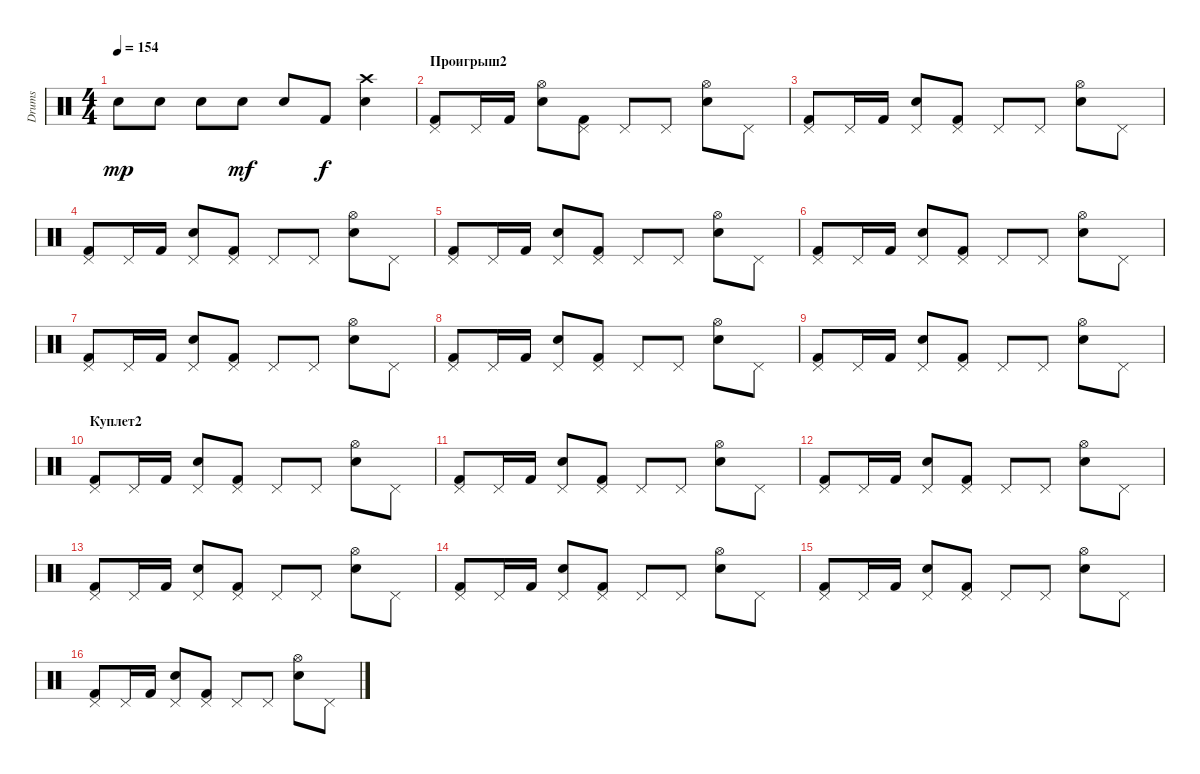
\track ("Drums" "Drums") {instrument percussion}
\staff {score}
\articulation defaults
\ts (4 4)
\tempo 154
\clef neutral
\ks c "Electric Snare (hit)".8{dy mp} "Electric Snare (hit)".8 "Electric Snare (hit)".8 "Electric Snare (hit)".8{dy mf} "Electric Snare (hit)".8 "Kick (hit) 2".8{dy f}
("Crash high (hit)" "Electric Snare (hit)").4 |
\section ("" "Проигрыш2")
("Pedal Hi-Hat (hit)" "Kick (hit) 2").8 "Pedal Hi-Hat (hit)".16 "Kick (hit) 2".16 ("Hi-Hat (open)" "Electric Snare (hit)").8 ("Pedal Hi-Hat (hit)" "Kick (hit) 2").8 "Pedal Hi-Hat (hit)".8 "Pedal Hi-Hat (hit)".8 ("Hi-Hat (open)" "Electric Snare (hit)").8 "Pedal Hi-Hat (hit)".8 |
("Pedal Hi-Hat (hit)" "Kick (hit) 2").8 "Pedal Hi-Hat (hit)".16 "Kick (hit) 2".16 ("Pedal Hi-Hat (hit)" "Electric Snare (hit)").8 ("Pedal Hi-Hat (hit)" "Kick (hit) 2").8 "Pedal Hi-Hat (hit)".8 "Pedal Hi-Hat (hit)".8 ("Hi-Hat (open)" "Electric Snare (hit)").8 "Pedal Hi-Hat (hit)".8 |
("Pedal Hi-Hat (hit)" "Kick (hit) 2").8 "Pedal Hi-Hat (hit)".16 "Kick (hit) 2".16 ("Pedal Hi-Hat (hit)" "Electric Snare (hit)").8 ("Pedal Hi-Hat (hit)" "Kick (hit) 2").8 "Pedal Hi-Hat (hit)".8 "Pedal Hi-Hat (hit)".8 ("Hi-Hat (open)" "Electric Snare (hit)").8 "Pedal Hi-Hat (hit)".8 |
("Pedal Hi-Hat (hit)" "Kick (hit) 2").8 "Pedal Hi-Hat (hit)".16 "Kick (hit) 2".16 ("Pedal Hi-Hat (hit)" "Electric Snare (hit)").8 ("Pedal Hi-Hat (hit)" "Kick (hit) 2").8 "Pedal Hi-Hat (hit)".8 "Pedal Hi-Hat (hit)".8 ("Hi-Hat (open)" "Electric Snare (hit)").8 "Pedal Hi-Hat (hit)".8 |
("Pedal Hi-Hat (hit)" "Kick (hit) 2").8 "Pedal Hi-Hat (hit)".16 "Kick (hit) 2".16 ("Pedal Hi-Hat (hit)" "Electric Snare (hit)").8 ("Pedal Hi-Hat (hit)" "Kick (hit) 2").8 "Pedal Hi-Hat (hit)".8 "Pedal Hi-Hat (hit)".8 ("Hi-Hat (open)" "Electric Snare (hit)").8 "Pedal Hi-Hat (hit)".8 |
("Pedal Hi-Hat (hit)" "Kick (hit) 2").8 "Pedal Hi-Hat (hit)".16 "Kick (hit) 2".16 ("Pedal Hi-Hat (hit)" "Electric Snare (hit)").8 ("Pedal Hi-Hat (hit)" "Kick (hit) 2").8 "Pedal Hi-Hat (hit)".8 "Pedal Hi-Hat (hit)".8 ("Hi-Hat (open)" "Electric Snare (hit)").8 "Pedal Hi-Hat (hit)".8 |
("Pedal Hi-Hat (hit)" "Kick (hit) 2").8 "Pedal Hi-Hat (hit)".16 "Kick (hit) 2".16 ("Pedal Hi-Hat (hit)" "Electric Snare (hit)").8 ("Pedal Hi-Hat (hit)" "Kick (hit) 2").8 "Pedal Hi-Hat (hit)".8 "Pedal Hi-Hat (hit)".8 ("Hi-Hat (open)" "Electric Snare (hit)").8 "Pedal Hi-Hat (hit)".8 |
("Pedal Hi-Hat (hit)" "Kick (hit) 2").8 "Pedal Hi-Hat (hit)".16 "Kick (hit) 2".16 ("Pedal Hi-Hat (hit)" "Electric Snare (hit)").8 ("Pedal Hi-Hat (hit)" "Kick (hit) 2").8 "Pedal Hi-Hat (hit)".8 "Pedal Hi-Hat (hit)".8 ("Hi-Hat (open)" "Electric Snare (hit)").8 "Pedal Hi-Hat (hit)".8 |
\section ("" "Куплет2")
("Pedal Hi-Hat (hit)" "Kick (hit) 2").8 "Pedal Hi-Hat (hit)".16 "Kick (hit) 2".16 ("Pedal Hi-Hat (hit)" "Electric Snare (hit)").8 ("Pedal Hi-Hat (hit)" "Kick (hit) 2").8 "Pedal Hi-Hat (hit)".8 "Pedal Hi-Hat (hit)".8 ("Hi-Hat (open)" "Electric Snare (hit)").8 "Pedal Hi-Hat (hit)".8 |
("Pedal Hi-Hat (hit)" "Kick (hit) 2").8 "Pedal Hi-Hat (hit)".16 "Kick (hit) 2".16 ("Pedal Hi-Hat (hit)" "Electric Snare (hit)").8 ("Pedal Hi-Hat (hit)" "Kick (hit) 2").8 "Pedal Hi-Hat (hit)".8 "Pedal Hi-Hat (hit)".8 ("Hi-Hat (open)" "Electric Snare (hit)").8 "Pedal Hi-Hat (hit)".8 |
("Pedal Hi-Hat (hit)" "Kick (hit) 2").8 "Pedal Hi-Hat (hit)".16 "Kick (hit) 2".16 ("Pedal Hi-Hat (hit)" "Electric Snare (hit)").8 ("Pedal Hi-Hat (hit)" "Kick (hit) 2").8 "Pedal Hi-Hat (hit)".8 "Pedal Hi-Hat (hit)".8 ("Hi-Hat (open)" "Electric Snare (hit)").8 "Pedal Hi-Hat (hit)".8 |
("Pedal Hi-Hat (hit)" "Kick (hit) 2").8 "Pedal Hi-Hat (hit)".16 "Kick (hit) 2".16 ("Pedal Hi-Hat (hit)" "Electric Snare (hit)").8 ("Pedal Hi-Hat (hit)" "Kick (hit) 2").8 "Pedal Hi-Hat (hit)".8 "Pedal Hi-Hat (hit)".8 ("Hi-Hat (open)" "Electric Snare (hit)").8 "Pedal Hi-Hat (hit)".8 |
("Pedal Hi-Hat (hit)" "Kick (hit) 2").8 "Pedal Hi-Hat (hit)".16 "Kick (hit) 2".16 ("Pedal Hi-Hat (hit)" "Electric Snare (hit)").8 ("Pedal Hi-Hat (hit)" "Kick (hit) 2").8 "Pedal Hi-Hat (hit)".8 "Pedal Hi-Hat (hit)".8 ("Hi-Hat (open)" "Electric Snare (hit)").8 "Pedal Hi-Hat (hit)".8 |
("Pedal Hi-Hat (hit)" "Kick (hit) 2").8 "Pedal Hi-Hat (hit)".16 "Kick (hit) 2".16 ("Pedal Hi-Hat (hit)" "Electric Snare (hit)").8 ("Pedal Hi-Hat (hit)" "Kick (hit) 2").8 "Pedal Hi-Hat (hit)".8 "Pedal Hi-Hat (hit)".8 ("Hi-Hat (open)" "Electric Snare (hit)").8 "Pedal Hi-Hat (hit)".8 |
("Pedal Hi-Hat (hit)" "Kick (hit) 2").8 "Pedal Hi-Hat (hit)".16 "Kick (hit) 2".16 ("Pedal Hi-Hat (hit)" "Electric Snare (hit)").8 ("Pedal Hi-Hat (hit)" "Kick (hit) 2").8 "Pedal Hi-Hat (hit)".8 "Pedal Hi-Hat (hit)".8 ("Hi-Hat (open)" "Electric Snare (hit)").8 "Pedal Hi-Hat (hit)".8
